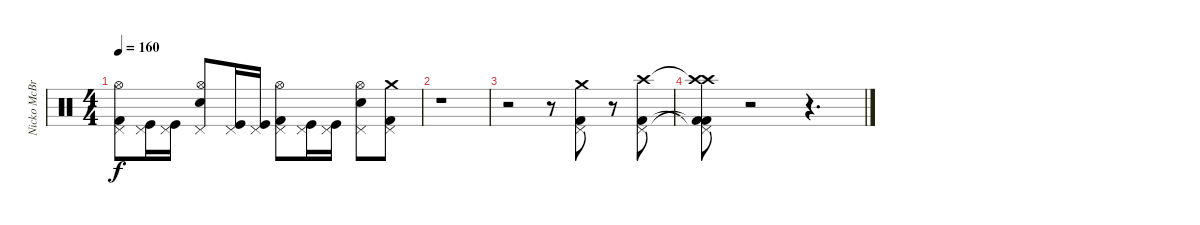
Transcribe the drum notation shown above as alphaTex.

\track ("Nicko McBrain" "Nicko McBr") {instrument percussion}
\staff {score}
\articulation defaults
\ts (4 4)
\tempo 160
\clef neutral
\ks c
("Kick (hit) 2" "Pedal Hi-Hat (hit)" "Hi-Hat (open)").8{dy f} ("Kick (hit)" "Pedal Hi-Hat (hit)").16 ("Kick (hit)" "Pedal Hi-Hat (hit)").16 ("Snare (hit) 2" "Pedal Hi-Hat (hit)" "Hi-Hat (open)").8 ("Kick (hit)" "Pedal Hi-Hat (hit)").16 ("Kick (hit)" "Pedal Hi-Hat (hit)").16 ("Kick (hit) 2" "Pedal Hi-Hat (hit)" "Hi-Hat (open)").8 ("Kick (hit)" "Pedal Hi-Hat (hit)").16 ("Kick (hit)" "Pedal Hi-Hat (hit)").16 ("Snare (hit) 2" "Pedal Hi-Hat (hit)" "Hi-Hat (open)").8 ("Kick (hit) 2" "Pedal Hi-Hat (hit)" "Crash medium (hit)").8 |
r.1 |
r.2 r.8 ("Pedal Hi-Hat (hit)" "Kick (hit) 2" "Crash medium (hit)").8 r.8 ("Pedal Hi-Hat (hit)" "Kick (hit) 2" "Crash high (hit)").8 |
("Kick (hit) 2"{t} "Pedal Hi-Hat (hit)"{t} "Crash high (hit)"{t} "Kick (hit) 2" "Crash high (hit)").8 r.2 r.4{d}
